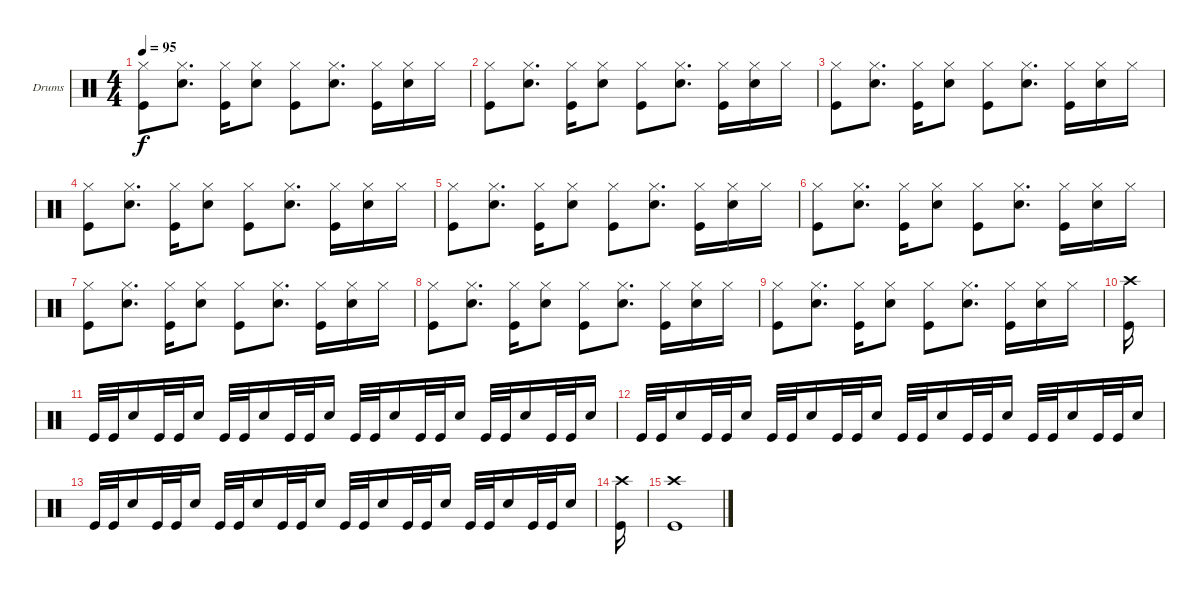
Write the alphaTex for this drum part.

\bracketExtendMode groupsimilarinstruments
\firstSystemTrackNameOrientation horizontal
\otherSystemsTrackNameOrientation horizontal
\track ("Drumkit" "Drums") {instrument percussion}
\staff {score}
\articulation defaults
\ts (4 4)
\tempo 95
\clef neutral
\scale
0.333333
\ks c
("Kick (hit)" "Hi-Hat (closed)").8{dy f} ("Snare (hit) 2" "Hi-Hat (closed)").8{d} ("Kick (hit)" "Hi-Hat (closed)").16 ("Snare (hit) 2" "Hi-Hat (closed)").8 ("Kick (hit)" "Hi-Hat (closed)").8 ("Snare (hit) 2" "Hi-Hat (closed)").8{d} ("Kick (hit)" "Hi-Hat (closed)").16 ("Snare (hit) 2" "Hi-Hat (closed)").16 "Hi-Hat (closed)".16 |
\scale
0.333333 ("Kick (hit)" "Hi-Hat (closed)").8 ("Snare (hit) 2" "Hi-Hat (closed)").8{d} ("Kick (hit)" "Hi-Hat (closed)").16 ("Snare (hit) 2" "Hi-Hat (closed)").8 ("Kick (hit)" "Hi-Hat (closed)").8 ("Snare (hit) 2" "Hi-Hat (closed)").8{d} ("Kick (hit)" "Hi-Hat (closed)").16 ("Snare (hit) 2" "Hi-Hat (closed)").16 "Hi-Hat (closed)".16 |
\scale
0.333333 ("Kick (hit)" "Hi-Hat (closed)").8 ("Snare (hit) 2" "Hi-Hat (closed)").8{d} ("Kick (hit)" "Hi-Hat (closed)").16 ("Snare (hit) 2" "Hi-Hat (closed)").8 ("Kick (hit)" "Hi-Hat (closed)").8 ("Snare (hit) 2" "Hi-Hat (closed)").8{d} ("Kick (hit)" "Hi-Hat (closed)").16 ("Snare (hit) 2" "Hi-Hat (closed)").16 "Hi-Hat (closed)".16 |
\scale
0.333333 ("Kick (hit)" "Hi-Hat (closed)").8 ("Snare (hit) 2" "Hi-Hat (closed)").8{d} ("Kick (hit)" "Hi-Hat (closed)").16 ("Snare (hit) 2" "Hi-Hat (closed)").8 ("Kick (hit)" "Hi-Hat (closed)").8 ("Snare (hit) 2" "Hi-Hat (closed)").8{d} ("Kick (hit)" "Hi-Hat (closed)").16 ("Snare (hit) 2" "Hi-Hat (closed)").16 "Hi-Hat (closed)".16 |
\scale
0.333333 ("Kick (hit)" "Hi-Hat (closed)").8 ("Snare (hit) 2" "Hi-Hat (closed)").8{d} ("Kick (hit)" "Hi-Hat (closed)").16 ("Snare (hit) 2" "Hi-Hat (closed)").8 ("Kick (hit)" "Hi-Hat (closed)").8 ("Snare (hit) 2" "Hi-Hat (closed)").8{d} ("Kick (hit)" "Hi-Hat (closed)").16 ("Snare (hit) 2" "Hi-Hat (closed)").16 "Hi-Hat (closed)".16 |
\scale
0.333333 ("Kick (hit)" "Hi-Hat (closed)").8 ("Snare (hit) 2" "Hi-Hat (closed)").8{d} ("Kick (hit)" "Hi-Hat (closed)").16 ("Snare (hit) 2" "Hi-Hat (closed)").8 ("Kick (hit)" "Hi-Hat (closed)").8 ("Snare (hit) 2" "Hi-Hat (closed)").8{d} ("Kick (hit)" "Hi-Hat (closed)").16 ("Snare (hit) 2" "Hi-Hat (closed)").16 "Hi-Hat (closed)".16 |
\scale
0.333333 ("Kick (hit)" "Hi-Hat (closed)").8 ("Snare (hit) 2" "Hi-Hat (closed)").8{d} ("Kick (hit)" "Hi-Hat (closed)").16 ("Snare (hit) 2" "Hi-Hat (closed)").8 ("Kick (hit)" "Hi-Hat (closed)").8 ("Snare (hit) 2" "Hi-Hat (closed)").8{d} ("Kick (hit)" "Hi-Hat (closed)").16 ("Snare (hit) 2" "Hi-Hat (closed)").16 "Hi-Hat (closed)".16 |
\scale
0.333333 ("Kick (hit)" "Hi-Hat (closed)").8 ("Snare (hit) 2" "Hi-Hat (closed)").8{d} ("Kick (hit)" "Hi-Hat (closed)").16 ("Snare (hit) 2" "Hi-Hat (closed)").8 ("Kick (hit)" "Hi-Hat (closed)").8 ("Snare (hit) 2" "Hi-Hat (closed)").8{d} ("Kick (hit)" "Hi-Hat (closed)").16 ("Snare (hit) 2" "Hi-Hat (closed)").16 "Hi-Hat (closed)".16 |
\scale
0.333333 ("Kick (hit)" "Hi-Hat (closed)").8 ("Snare (hit) 2" "Hi-Hat (closed)").8{d} ("Kick (hit)" "Hi-Hat (closed)").16 ("Snare (hit) 2" "Hi-Hat (closed)").8 ("Kick (hit)" "Hi-Hat (closed)").8 ("Snare (hit) 2" "Hi-Hat (closed)").8{d} ("Kick (hit)" "Hi-Hat (closed)").16 ("Snare (hit) 2" "Hi-Hat (closed)").16 "Hi-Hat (closed)".16 |
\scale
0.333333 ("Kick (hit)" "Crash high (hit)").16 |
\scale
0.333333 "Kick (hit)".32 "Kick (hit)".32 "Snare (hit) 2".16 "Kick (hit)".32 "Kick (hit)".32 "Snare (hit) 2".16 "Kick (hit)".32 "Kick (hit)".32 "Snare (hit) 2".16 "Kick (hit)".32 "Kick (hit)".32 "Snare (hit) 2".16 "Kick (hit)".32 "Kick (hit)".32 "Snare (hit) 2".16 "Kick (hit)".32 "Kick (hit)".32 "Snare (hit) 2".16 "Kick (hit)".32 "Kick (hit)".32 "Snare (hit) 2".16 "Kick (hit)".32 "Kick (hit)".32 "Snare (hit) 2".16 |
\scale
0.333333 "Kick (hit)".32 "Kick (hit)".32 "Snare (hit) 2".16 "Kick (hit)".32 "Kick (hit)".32 "Snare (hit) 2".16 "Kick (hit)".32 "Kick (hit)".32 "Snare (hit) 2".16 "Kick (hit)".32 "Kick (hit)".32 "Snare (hit) 2".16 "Kick (hit)".32 "Kick (hit)".32 "Snare (hit) 2".16 "Kick (hit)".32 "Kick (hit)".32 "Snare (hit) 2".16 "Kick (hit)".32 "Kick (hit)".32 "Snare (hit) 2".16 "Kick (hit)".32 "Kick (hit)".32 "Snare (hit) 2".16 |
\scale
0.333333 "Kick (hit)".32 "Kick (hit)".32 "Snare (hit) 2".16 "Kick (hit)".32 "Kick (hit)".32 "Snare (hit) 2".16 "Kick (hit)".32 "Kick (hit)".32 "Snare (hit) 2".16 "Kick (hit)".32 "Kick (hit)".32 "Snare (hit) 2".16 "Kick (hit)".32 "Kick (hit)".32 "Snare (hit) 2".16 "Kick (hit)".32 "Kick (hit)".32 "Snare (hit) 2".16 "Kick (hit)".32 "Kick (hit)".32 "Snare (hit) 2".16 "Kick (hit)".32 "Kick (hit)".32 "Snare (hit) 2".16 |
\scale
0.333333 ("Kick (hit)" "Crash high (hit)").16 |
\scale
0.333333 ("Kick (hit)" "Crash high (hit)").1 |
\scale
0.333333
